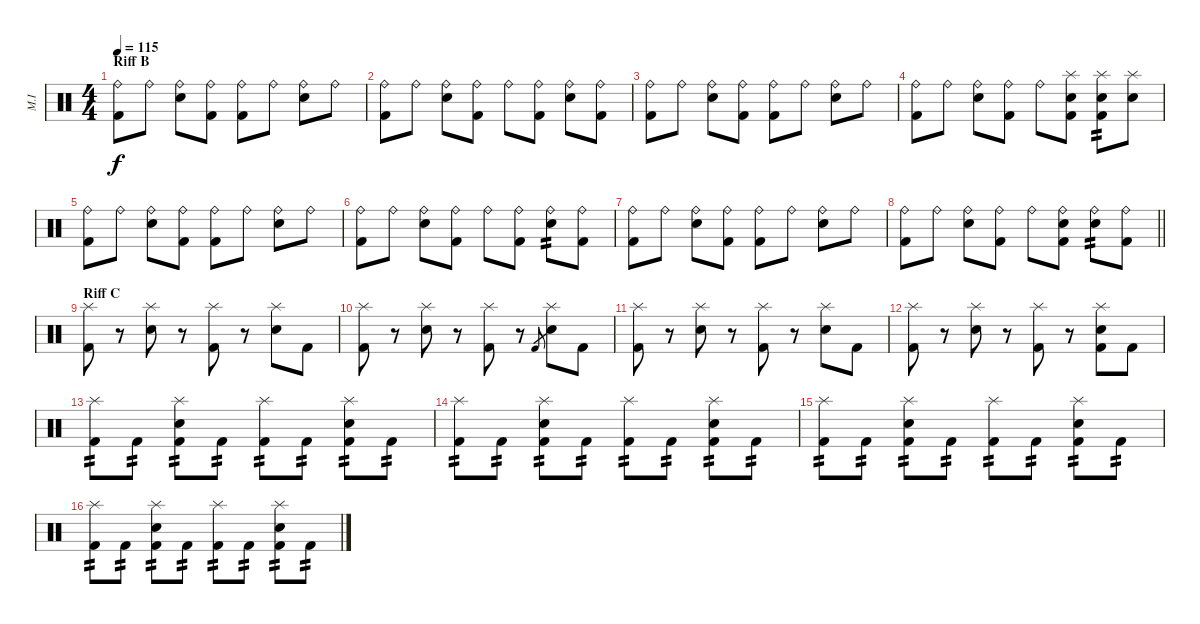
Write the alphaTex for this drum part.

\track ("M.I" "M.I") {instrument percussion}
\staff {score}
\articulation defaults
\ts (4 4)
\section ("" "Riff B")
\tempo 115
\clef neutral
\ks c
("Ride (bell)" "Kick (hit) 2").8{dy f} "Ride (bell)".8 ("Ride (bell)" "Snare (hit) 2").8 ("Ride (bell)" "Kick (hit) 2").8 ("Ride (bell)" "Kick (hit) 2").8 "Ride (bell)".8 ("Ride (bell)" "Snare (hit) 2").8 "Ride (bell)".8 |
("Ride (bell)" "Kick (hit) 2").8 "Ride (bell)".8 ("Ride (bell)" "Snare (hit) 2").8 ("Ride (bell)" "Kick (hit) 2").8 "Ride (bell)".8 ("Ride (bell)" "Kick (hit) 2").8 ("Ride (bell)" "Snare (hit) 2").8 ("Ride (bell)" "Kick (hit) 2").8 |
("Ride (bell)" "Kick (hit) 2").8 "Ride (bell)".8 ("Ride (bell)" "Snare (hit) 2").8 ("Ride (bell)" "Kick (hit) 2").8 ("Ride (bell)" "Kick (hit) 2").8 "Ride (bell)".8 ("Ride (bell)" "Snare (hit) 2").8 "Ride (bell)".8 |
("Ride (bell)" "Kick (hit) 2").8 "Ride (bell)".8 ("Ride (bell)" "Snare (hit) 2").8 ("Ride (bell)" "Kick (hit) 2").8 "Ride (bell)".8 ("Splash (hit)" "Snare (hit) 2" "Kick (hit) 2").8 ("Splash (hit)" "Snare (hit) 2" "Kick (hit) 2").8{tp 2} ("Splash (hit)" "Snare (hit) 2").8 |
("Ride (bell)" "Kick (hit) 2").8 "Ride (bell)".8 ("Ride (bell)" "Snare (hit) 2").8 ("Ride (bell)" "Kick (hit) 2").8 ("Ride (bell)" "Kick (hit) 2").8 "Ride (bell)".8 ("Ride (bell)" "Snare (hit) 2").8 "Ride (bell)".8 |
("Ride (bell)" "Kick (hit) 2").8 "Ride (bell)".8 ("Ride (bell)" "Snare (hit) 2").8 ("Ride (bell)" "Kick (hit) 2").8 "Ride (bell)".8 ("Ride (bell)" "Kick (hit) 2").8 ("Ride (bell)" "Snare (hit) 2").8{tp 2} ("Ride (bell)" "Kick (hit) 2").8 |
("Ride (bell)" "Kick (hit) 2").8 "Ride (bell)".8 ("Ride (bell)" "Snare (hit) 2").8 ("Ride (bell)" "Kick (hit) 2").8 ("Ride (bell)" "Kick (hit) 2").8 "Ride (bell)".8 ("Ride (bell)" "Snare (hit) 2").8 "Ride (bell)".8 |
\barLineRight lightlight
("Ride (bell)" "Kick (hit) 2").8 "Ride (bell)".8 ("Ride (bell)" "Snare (hit) 2").8 ("Ride (bell)" "Kick (hit) 2").8 "Ride (bell)".8 ("Ride (bell)" "Snare (hit) 2" "Kick (hit) 2").8 ("Ride (bell)" "Snare (hit) 2").8{tp 2} ("Ride (bell)" "Kick (hit) 2").8 |
\section ("" "Riff C")
("Splash (hit)" "Kick (hit) 2").8 r.8 ("Splash (hit)" "Snare (hit) 2").8 r.8 ("Splash (hit)" "Kick (hit) 2").8 r.8 ("Splash (hit)" "Snare (hit) 2").8 "Kick (hit) 2".8 |
("Splash (hit)" "Kick (hit) 2").8 r.8 ("Splash (hit)" "Snare (hit) 2").8 r.8 ("Splash (hit)" "Kick (hit) 2").8 r.8 "Kick (hit) 2".8{gr} ("Splash (hit)" "Snare (hit) 2").8 "Kick (hit) 2".8 |
("Splash (hit)" "Kick (hit) 2").8 r.8 ("Splash (hit)" "Snare (hit) 2").8 r.8 ("Splash (hit)" "Kick (hit) 2").8 r.8 ("Splash (hit)" "Snare (hit) 2").8 "Kick (hit) 2".8 |
("Splash (hit)" "Kick (hit) 2").8 r.8 ("Splash (hit)" "Snare (hit) 2").8 r.8 ("Splash (hit)" "Kick (hit) 2").8 r.8 ("Splash (hit)" "Snare (hit) 2" "Kick (hit) 2").8 "Kick (hit) 2".8 |
("Splash (hit)" "Kick (hit) 2").8{tp 2} "Kick (hit) 2".8{tp 2} ("Splash (hit)" "Snare (hit) 2" "Kick (hit) 2").8{tp 2} "Kick (hit) 2".8{tp 2} ("Splash (hit)" "Kick (hit) 2").8{tp 2} "Kick (hit) 2".8{tp 2} ("Splash (hit)" "Snare (hit) 2" "Kick (hit) 2").8{tp 2} "Kick (hit) 2".8{tp 2} |
("Splash (hit)" "Kick (hit) 2").8{tp 2} "Kick (hit) 2".8{tp 2} ("Splash (hit)" "Snare (hit) 2" "Kick (hit) 2").8{tp 2} "Kick (hit) 2".8{tp 2} ("Splash (hit)" "Kick (hit) 2").8{tp 2} "Kick (hit) 2".8{tp 2} ("Splash (hit)" "Snare (hit) 2" "Kick (hit) 2").8{tp 2} "Kick (hit) 2".8{tp 2} |
("Splash (hit)" "Kick (hit) 2").8{tp 2} "Kick (hit) 2".8{tp 2} ("Splash (hit)" "Snare (hit) 2" "Kick (hit) 2").8{tp 2} "Kick (hit) 2".8{tp 2} ("Splash (hit)" "Kick (hit) 2").8{tp 2} "Kick (hit) 2".8{tp 2} ("Splash (hit)" "Snare (hit) 2" "Kick (hit) 2").8{tp 2} "Kick (hit) 2".8{tp 2} |
("Splash (hit)" "Kick (hit) 2").8{tp 2} "Kick (hit) 2".8{tp 2} ("Splash (hit)" "Snare (hit) 2" "Kick (hit) 2").8{tp 2} "Kick (hit) 2".8{tp 2} ("Splash (hit)" "Kick (hit) 2").8{tp 2} "Kick (hit) 2".8{tp 2} ("Splash (hit)" "Snare (hit) 2" "Kick (hit) 2").8{tp 2} "Kick (hit) 2".8{tp 2}
